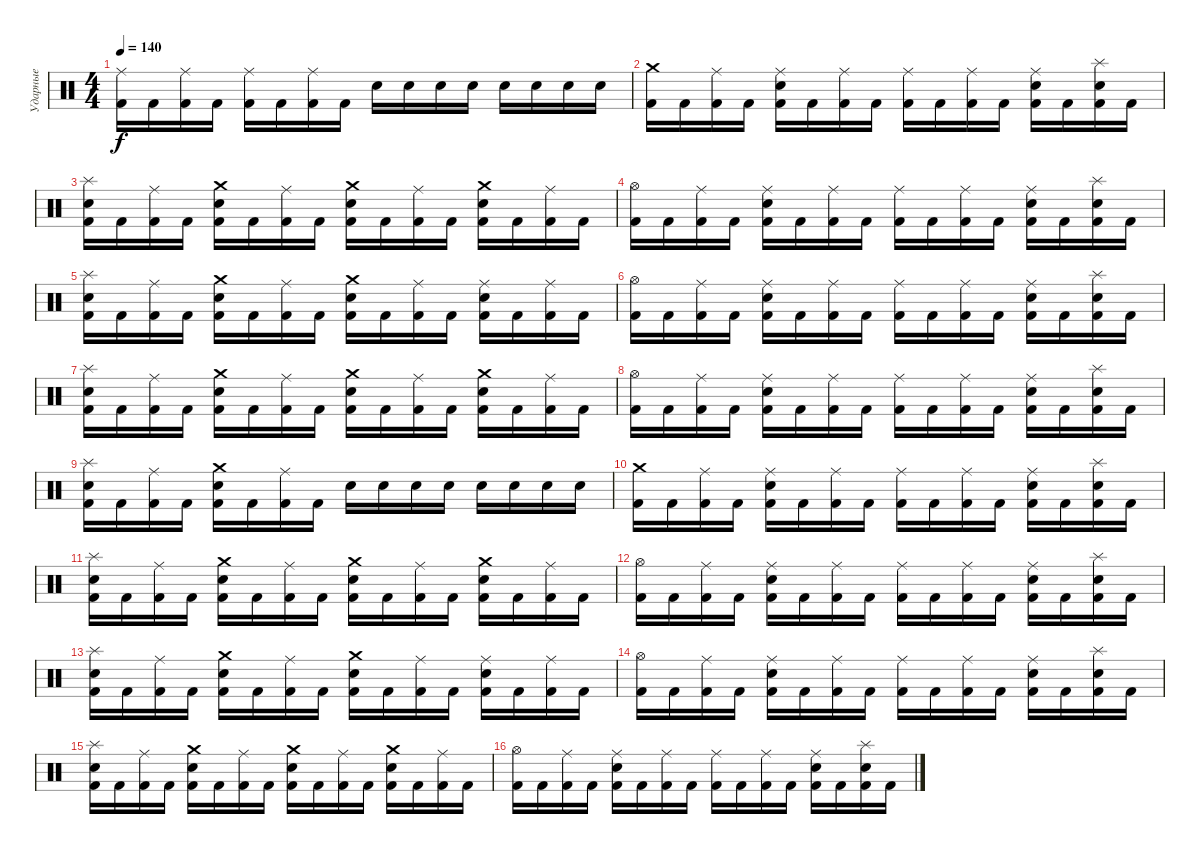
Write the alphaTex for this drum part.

\track ("Ударные" "Ударные") {instrument percussion}
\staff {score}
\articulation defaults
\ts (4 4)
\tempo 140
\clef neutral
\ks c
("Ride (middle)" "Kick (hit) 2").16{dy f} "Kick (hit) 2".16 ("Ride (middle)" "Kick (hit) 2").16 "Kick (hit) 2".16 ("Ride (middle)" "Kick (hit) 2").16 "Kick (hit) 2".16 ("Ride (middle)" "Kick (hit) 2").16 "Kick (hit) 2".16 "Snare (hit) 2".16 "Snare (hit) 2".16 "Snare (hit) 2".16 "Snare (hit) 2".16 "Snare (hit) 2".16 "Snare (hit) 2".16 "Snare (hit) 2".16 "Snare (hit) 2".16 |
("Crash medium (hit)" "Kick (hit) 2").16 "Kick (hit) 2".16 ("Ride (middle)" "Kick (hit) 2").16 "Kick (hit) 2".16 ("Ride (middle)" "Snare (hit) 2" "Kick (hit) 2").16 "Kick (hit) 2".16 ("Ride (middle)" "Kick (hit) 2").16 "Kick (hit) 2".16 ("Ride (middle)" "Kick (hit) 2").16 "Kick (hit) 2".16 ("Ride (middle)" "Kick (hit) 2").16 "Kick (hit) 2".16 ("Ride (middle)" "Snare (hit) 2" "Kick (hit) 2").16 "Kick (hit) 2".16 ("Splash (hit)" "Snare (hit) 2" "Kick (hit) 2").16 "Kick (hit) 2".16 |
("Splash (hit)" "Snare (hit) 2" "Kick (hit) 2").16 "Kick (hit) 2".16 ("Ride (middle)" "Kick (hit) 2").16 "Kick (hit) 2".16 ("Crash medium (hit)" "Snare (hit) 2" "Kick (hit) 2").16 "Kick (hit) 2".16 ("Ride (middle)" "Kick (hit) 2").16 "Kick (hit) 2".16 ("Crash medium (hit)" "Snare (hit) 2" "Kick (hit) 2").16 "Kick (hit) 2".16 ("Ride (middle)" "Kick (hit) 2").16 "Kick (hit) 2".16 ("Crash medium (hit)" "Snare (hit) 2" "Kick (hit) 2").16 "Kick (hit) 2".16 ("Ride (middle)" "Kick (hit) 2").16 "Kick (hit) 2".16 |
("Hi-Hat (open)" "Kick (hit) 2").16 "Kick (hit) 2".16 ("Ride (middle)" "Kick (hit) 2").16 "Kick (hit) 2".16 ("Ride (middle)" "Snare (hit) 2" "Kick (hit) 2").16 "Kick (hit) 2".16 ("Ride (middle)" "Kick (hit) 2").16 "Kick (hit) 2".16 ("Ride (middle)" "Kick (hit) 2").16 "Kick (hit) 2".16 ("Ride (middle)" "Kick (hit) 2").16 "Kick (hit) 2".16 ("Ride (middle)" "Snare (hit) 2" "Kick (hit) 2").16 "Kick (hit) 2".16 ("Splash (hit)" "Snare (hit) 2" "Kick (hit) 2").16 "Kick (hit) 2".16 |
("Splash (hit)" "Snare (hit) 2" "Kick (hit) 2").16 "Kick (hit) 2".16 ("Ride (middle)" "Kick (hit) 2").16 "Kick (hit) 2".16 ("Crash medium (hit)" "Snare (hit) 2" "Kick (hit) 2").16 "Kick (hit) 2".16 ("Ride (middle)" "Kick (hit) 2").16 "Kick (hit) 2".16 ("Crash medium (hit)" "Snare (hit) 2" "Kick (hit) 2").16 "Kick (hit) 2".16 ("Ride (middle)" "Kick (hit) 2").16 "Kick (hit) 2".16 ("Ride (middle)" "Snare (hit) 2" "Kick (hit) 2").16 "Kick (hit) 2".16 ("Ride (middle)" "Kick (hit) 2").16 "Kick (hit) 2".16 |
("Hi-Hat (open)" "Kick (hit) 2").16 "Kick (hit) 2".16 ("Ride (middle)" "Kick (hit) 2").16 "Kick (hit) 2".16 ("Ride (middle)" "Snare (hit) 2" "Kick (hit) 2").16 "Kick (hit) 2".16 ("Ride (middle)" "Kick (hit) 2").16 "Kick (hit) 2".16 ("Ride (middle)" "Kick (hit) 2").16 "Kick (hit) 2".16 ("Ride (middle)" "Kick (hit) 2").16 "Kick (hit) 2".16 ("Ride (middle)" "Snare (hit) 2" "Kick (hit) 2").16 "Kick (hit) 2".16 ("Splash (hit)" "Snare (hit) 2" "Kick (hit) 2").16 "Kick (hit) 2".16 |
("Splash (hit)" "Snare (hit) 2" "Kick (hit) 2").16 "Kick (hit) 2".16 ("Ride (middle)" "Kick (hit) 2").16 "Kick (hit) 2".16 ("Crash medium (hit)" "Snare (hit) 2" "Kick (hit) 2").16 "Kick (hit) 2".16 ("Ride (middle)" "Kick (hit) 2").16 "Kick (hit) 2".16 ("Crash medium (hit)" "Snare (hit) 2" "Kick (hit) 2").16 "Kick (hit) 2".16 ("Ride (middle)" "Kick (hit) 2").16 "Kick (hit) 2".16 ("Crash medium (hit)" "Snare (hit) 2" "Kick (hit) 2").16 "Kick (hit) 2".16 ("Ride (middle)" "Kick (hit) 2").16 "Kick (hit) 2".16 |
("Hi-Hat (open)" "Kick (hit) 2").16 "Kick (hit) 2".16 ("Ride (middle)" "Kick (hit) 2").16 "Kick (hit) 2".16 ("Ride (middle)" "Snare (hit) 2" "Kick (hit) 2").16 "Kick (hit) 2".16 ("Ride (middle)" "Kick (hit) 2").16 "Kick (hit) 2".16 ("Ride (middle)" "Kick (hit) 2").16 "Kick (hit) 2".16 ("Ride (middle)" "Kick (hit) 2").16 "Kick (hit) 2".16 ("Ride (middle)" "Snare (hit) 2" "Kick (hit) 2").16 "Kick (hit) 2".16 ("Splash (hit)" "Snare (hit) 2" "Kick (hit) 2").16 "Kick (hit) 2".16 |
("Splash (hit)" "Snare (hit) 2" "Kick (hit) 2").16 "Kick (hit) 2".16 ("Ride (middle)" "Kick (hit) 2").16 "Kick (hit) 2".16 ("Crash medium (hit)" "Snare (hit) 2" "Kick (hit) 2").16 "Kick (hit) 2".16 ("Ride (middle)" "Kick (hit) 2").16 "Kick (hit) 2".16 "Snare (hit) 2".16 "Snare (hit) 2".16 "Snare (hit) 2".16 "Snare (hit) 2".16 "Snare (hit) 2".16 "Snare (hit) 2".16 "Snare (hit) 2".16 "Snare (hit) 2".16 |
("Crash medium (hit)" "Kick (hit) 2").16 "Kick (hit) 2".16 ("Ride (middle)" "Kick (hit) 2").16 "Kick (hit) 2".16 ("Ride (middle)" "Snare (hit) 2" "Kick (hit) 2").16 "Kick (hit) 2".16 ("Ride (middle)" "Kick (hit) 2").16 "Kick (hit) 2".16 ("Ride (middle)" "Kick (hit) 2").16 "Kick (hit) 2".16 ("Ride (middle)" "Kick (hit) 2").16 "Kick (hit) 2".16 ("Ride (middle)" "Snare (hit) 2" "Kick (hit) 2").16 "Kick (hit) 2".16 ("Splash (hit)" "Snare (hit) 2" "Kick (hit) 2").16 "Kick (hit) 2".16 |
("Splash (hit)" "Snare (hit) 2" "Kick (hit) 2").16 "Kick (hit) 2".16 ("Ride (middle)" "Kick (hit) 2").16 "Kick (hit) 2".16 ("Crash medium (hit)" "Snare (hit) 2" "Kick (hit) 2").16 "Kick (hit) 2".16 ("Ride (middle)" "Kick (hit) 2").16 "Kick (hit) 2".16 ("Crash medium (hit)" "Snare (hit) 2" "Kick (hit) 2").16 "Kick (hit) 2".16 ("Ride (middle)" "Kick (hit) 2").16 "Kick (hit) 2".16 ("Crash medium (hit)" "Snare (hit) 2" "Kick (hit) 2").16 "Kick (hit) 2".16 ("Ride (middle)" "Kick (hit) 2").16 "Kick (hit) 2".16 |
("Hi-Hat (open)" "Kick (hit) 2").16 "Kick (hit) 2".16 ("Ride (middle)" "Kick (hit) 2").16 "Kick (hit) 2".16 ("Ride (middle)" "Snare (hit) 2" "Kick (hit) 2").16 "Kick (hit) 2".16 ("Ride (middle)" "Kick (hit) 2").16 "Kick (hit) 2".16 ("Ride (middle)" "Kick (hit) 2").16 "Kick (hit) 2".16 ("Ride (middle)" "Kick (hit) 2").16 "Kick (hit) 2".16 ("Ride (middle)" "Snare (hit) 2" "Kick (hit) 2").16 "Kick (hit) 2".16 ("Splash (hit)" "Snare (hit) 2" "Kick (hit) 2").16 "Kick (hit) 2".16 |
("Splash (hit)" "Snare (hit) 2" "Kick (hit) 2").16 "Kick (hit) 2".16 ("Ride (middle)" "Kick (hit) 2").16 "Kick (hit) 2".16 ("Crash medium (hit)" "Snare (hit) 2" "Kick (hit) 2").16 "Kick (hit) 2".16 ("Ride (middle)" "Kick (hit) 2").16 "Kick (hit) 2".16 ("Crash medium (hit)" "Snare (hit) 2" "Kick (hit) 2").16 "Kick (hit) 2".16 ("Ride (middle)" "Kick (hit) 2").16 "Kick (hit) 2".16 ("Ride (middle)" "Snare (hit) 2" "Kick (hit) 2").16 "Kick (hit) 2".16 ("Ride (middle)" "Kick (hit) 2").16 "Kick (hit) 2".16 |
("Hi-Hat (open)" "Kick (hit) 2").16 "Kick (hit) 2".16 ("Ride (middle)" "Kick (hit) 2").16 "Kick (hit) 2".16 ("Ride (middle)" "Snare (hit) 2" "Kick (hit) 2").16 "Kick (hit) 2".16 ("Ride (middle)" "Kick (hit) 2").16 "Kick (hit) 2".16 ("Ride (middle)" "Kick (hit) 2").16 "Kick (hit) 2".16 ("Ride (middle)" "Kick (hit) 2").16 "Kick (hit) 2".16 ("Ride (middle)" "Snare (hit) 2" "Kick (hit) 2").16 "Kick (hit) 2".16 ("Splash (hit)" "Snare (hit) 2" "Kick (hit) 2").16 "Kick (hit) 2".16 |
("Splash (hit)" "Snare (hit) 2" "Kick (hit) 2").16 "Kick (hit) 2".16 ("Ride (middle)" "Kick (hit) 2").16 "Kick (hit) 2".16 ("Crash medium (hit)" "Snare (hit) 2" "Kick (hit) 2").16 "Kick (hit) 2".16 ("Ride (middle)" "Kick (hit) 2").16 "Kick (hit) 2".16 ("Crash medium (hit)" "Snare (hit) 2" "Kick (hit) 2").16 "Kick (hit) 2".16 ("Ride (middle)" "Kick (hit) 2").16 "Kick (hit) 2".16 ("Crash medium (hit)" "Snare (hit) 2" "Kick (hit) 2").16 "Kick (hit) 2".16 ("Ride (middle)" "Kick (hit) 2").16 "Kick (hit) 2".16 |
("Hi-Hat (open)" "Kick (hit) 2").16 "Kick (hit) 2".16 ("Ride (middle)" "Kick (hit) 2").16 "Kick (hit) 2".16 ("Ride (middle)" "Snare (hit) 2" "Kick (hit) 2").16 "Kick (hit) 2".16 ("Ride (middle)" "Kick (hit) 2").16 "Kick (hit) 2".16 ("Ride (middle)" "Kick (hit) 2").16 "Kick (hit) 2".16 ("Ride (middle)" "Kick (hit) 2").16 "Kick (hit) 2".16 ("Ride (middle)" "Snare (hit) 2" "Kick (hit) 2").16 "Kick (hit) 2".16 ("Splash (hit)" "Snare (hit) 2" "Kick (hit) 2").16 "Kick (hit) 2".16
